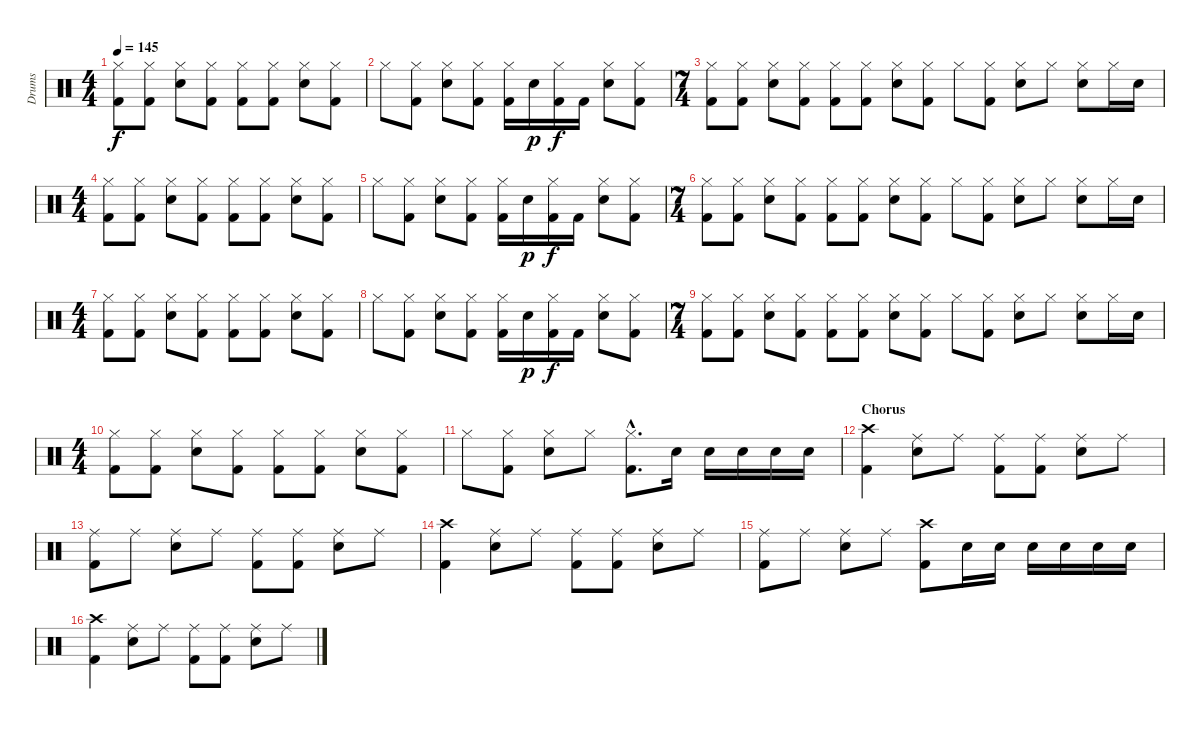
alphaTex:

\track ("Drums" "Drums") {instrument percussion}
\staff {score}
\articulation defaults
\ts (4 4)
\tempo 145
\clef neutral
\ks c
("Hi-Hat (closed)" "Kick (hit) 2").8{dy f} ("Hi-Hat (closed)" "Kick (hit) 2").8 ("Hi-Hat (closed)" "Electric Snare (hit)").8 ("Hi-Hat (closed)" "Kick (hit) 2").8 ("Hi-Hat (closed)" "Kick (hit) 2").8 ("Hi-Hat (closed)" "Kick (hit) 2").8 ("Hi-Hat (closed)" "Electric Snare (hit)").8 ("Hi-Hat (closed)" "Kick (hit) 2").8 |
"Hi-Hat (closed)".8 ("Hi-Hat (closed)" "Kick (hit) 2").8 ("Hi-Hat (closed)" "Electric Snare (hit)").8 ("Hi-Hat (closed)" "Kick (hit) 2").8 ("Hi-Hat (closed)" "Kick (hit) 2").16 "Electric Snare (hit)".16{dy p} ("Hi-Hat (closed)" "Kick (hit) 2").16{dy f} "Kick (hit) 2".16 ("Hi-Hat (closed)" "Electric Snare (hit)").8 ("Hi-Hat (closed)" "Kick (hit) 2").8 |
\ts (7 4)
("Hi-Hat (closed)" "Kick (hit) 2").8 ("Hi-Hat (closed)" "Kick (hit) 2").8 ("Hi-Hat (closed)" "Electric Snare (hit)").8 ("Hi-Hat (closed)" "Kick (hit) 2").8 ("Hi-Hat (closed)" "Kick (hit) 2").8 ("Hi-Hat (closed)" "Kick (hit) 2").8 ("Hi-Hat (closed)" "Electric Snare (hit)").8 ("Hi-Hat (closed)" "Kick (hit) 2").8 "Hi-Hat (closed)".8 ("Hi-Hat (closed)" "Kick (hit) 2").8 ("Hi-Hat (closed)" "Electric Snare (hit)").8 "Hi-Hat (closed)".8 ("Hi-Hat (closed)" "Electric Snare (hit)").8 "Hi-Hat (closed)".16 "Electric Snare (hit)".16 |
\ts (4 4)
("Hi-Hat (closed)" "Kick (hit) 2").8 ("Hi-Hat (closed)" "Kick (hit) 2").8 ("Hi-Hat (closed)" "Electric Snare (hit)").8 ("Hi-Hat (closed)" "Kick (hit) 2").8 ("Hi-Hat (closed)" "Kick (hit) 2").8 ("Hi-Hat (closed)" "Kick (hit) 2").8 ("Hi-Hat (closed)" "Electric Snare (hit)").8 ("Hi-Hat (closed)" "Kick (hit) 2").8 |
"Hi-Hat (closed)".8 ("Hi-Hat (closed)" "Kick (hit) 2").8 ("Hi-Hat (closed)" "Electric Snare (hit)").8 ("Hi-Hat (closed)" "Kick (hit) 2").8 ("Hi-Hat (closed)" "Kick (hit) 2").16 "Electric Snare (hit)".16{dy p} ("Hi-Hat (closed)" "Kick (hit) 2").16{dy f} "Kick (hit) 2".16 ("Hi-Hat (closed)" "Electric Snare (hit)").8 ("Hi-Hat (closed)" "Kick (hit) 2").8 |
\ts (7 4)
("Hi-Hat (closed)" "Kick (hit) 2").8 ("Hi-Hat (closed)" "Kick (hit) 2").8 ("Hi-Hat (closed)" "Electric Snare (hit)").8 ("Hi-Hat (closed)" "Kick (hit) 2").8 ("Hi-Hat (closed)" "Kick (hit) 2").8 ("Hi-Hat (closed)" "Kick (hit) 2").8 ("Hi-Hat (closed)" "Electric Snare (hit)").8 ("Hi-Hat (closed)" "Kick (hit) 2").8 "Hi-Hat (closed)".8 ("Hi-Hat (closed)" "Kick (hit) 2").8 ("Hi-Hat (closed)" "Electric Snare (hit)").8 "Hi-Hat (closed)".8 ("Hi-Hat (closed)" "Electric Snare (hit)").8 "Hi-Hat (closed)".16 "Electric Snare (hit)".16 |
\ts (4 4)
("Hi-Hat (closed)" "Kick (hit) 2").8 ("Hi-Hat (closed)" "Kick (hit) 2").8 ("Hi-Hat (closed)" "Electric Snare (hit)").8 ("Hi-Hat (closed)" "Kick (hit) 2").8 ("Hi-Hat (closed)" "Kick (hit) 2").8 ("Hi-Hat (closed)" "Kick (hit) 2").8 ("Hi-Hat (closed)" "Electric Snare (hit)").8 ("Hi-Hat (closed)" "Kick (hit) 2").8 |
"Hi-Hat (closed)".8 ("Hi-Hat (closed)" "Kick (hit) 2").8 ("Hi-Hat (closed)" "Electric Snare (hit)").8 ("Hi-Hat (closed)" "Kick (hit) 2").8 ("Hi-Hat (closed)" "Kick (hit) 2").16 "Electric Snare (hit)".16{dy p} ("Hi-Hat (closed)" "Kick (hit) 2").16{dy f} "Kick (hit) 2".16 ("Hi-Hat (closed)" "Electric Snare (hit)").8 ("Hi-Hat (closed)" "Kick (hit) 2").8 |
\ts (7 4)
("Hi-Hat (closed)" "Kick (hit) 2").8 ("Hi-Hat (closed)" "Kick (hit) 2").8 ("Hi-Hat (closed)" "Electric Snare (hit)").8 ("Hi-Hat (closed)" "Kick (hit) 2").8 ("Hi-Hat (closed)" "Kick (hit) 2").8 ("Hi-Hat (closed)" "Kick (hit) 2").8 ("Hi-Hat (closed)" "Electric Snare (hit)").8 ("Hi-Hat (closed)" "Kick (hit) 2").8 "Hi-Hat (closed)".8 ("Hi-Hat (closed)" "Kick (hit) 2").8 ("Hi-Hat (closed)" "Electric Snare (hit)").8 "Hi-Hat (closed)".8 ("Hi-Hat (closed)" "Electric Snare (hit)").8 "Hi-Hat (closed)".16 "Electric Snare (hit)".16 |
\ts (4 4)
("Hi-Hat (closed)" "Kick (hit) 2").8 ("Hi-Hat (closed)" "Kick (hit) 2").8 ("Hi-Hat (closed)" "Electric Snare (hit)").8 ("Hi-Hat (closed)" "Kick (hit) 2").8 ("Hi-Hat (closed)" "Kick (hit) 2").8 ("Hi-Hat (closed)" "Kick (hit) 2").8 ("Hi-Hat (closed)" "Electric Snare (hit)").8 ("Hi-Hat (closed)" "Kick (hit) 2").8 |
"Hi-Hat (closed)".8 ("Hi-Hat (closed)" "Kick (hit) 2").8 ("Hi-Hat (closed)" "Electric Snare (hit)").8 "Hi-Hat (closed)".8 ("Hi-Hat (closed)"{hac} "Kick (hit) 2"{hac}).8{d} "Electric Snare (hit)".16 "Electric Snare (hit)".16 "Electric Snare (hit)".16 "Electric Snare (hit)".16 "Electric Snare (hit)".16 |
\section ("" "Chorus")
("Crash high (hit)" "Kick (hit) 2").4 ("Ride (middle)" "Electric Snare (hit)").8 "Ride (middle)".8 ("Ride (middle)" "Kick (hit) 2").8 ("Ride (middle)" "Kick (hit) 2").8 ("Ride (middle)" "Electric Snare (hit)").8 "Ride (middle)".8 |
("Ride (middle)" "Kick (hit) 2").8 "Ride (middle)".8 ("Ride (middle)" "Electric Snare (hit)").8 "Ride (middle)".8 ("Ride (middle)" "Kick (hit) 2").8 ("Ride (middle)" "Kick (hit) 2").8 ("Ride (middle)" "Electric Snare (hit)").8 "Ride (middle)".8 |
("Crash high (hit)" "Kick (hit) 2").4 ("Ride (middle)" "Electric Snare (hit)").8 "Ride (middle)".8 ("Ride (middle)" "Kick (hit) 2").8 ("Ride (middle)" "Kick (hit) 2").8 ("Ride (middle)" "Electric Snare (hit)").8 "Ride (middle)".8 |
("Ride (middle)" "Kick (hit) 2").8 "Ride (middle)".8 ("Ride (middle)" "Electric Snare (hit)").8 "Ride (middle)".8 ("Crash high (hit)" "Kick (hit) 2").8 "Electric Snare (hit)".16 "Electric Snare (hit)".16 "Electric Snare (hit)".16 "Electric Snare (hit)".16 "Electric Snare (hit)".16 "Electric Snare (hit)".16 |
("Crash high (hit)" "Kick (hit) 2").4 ("Ride (middle)" "Electric Snare (hit)").8 "Ride (middle)".8 ("Ride (middle)" "Kick (hit) 2").8 ("Ride (middle)" "Kick (hit) 2").8 ("Ride (middle)" "Electric Snare (hit)").8 "Ride (middle)".8
